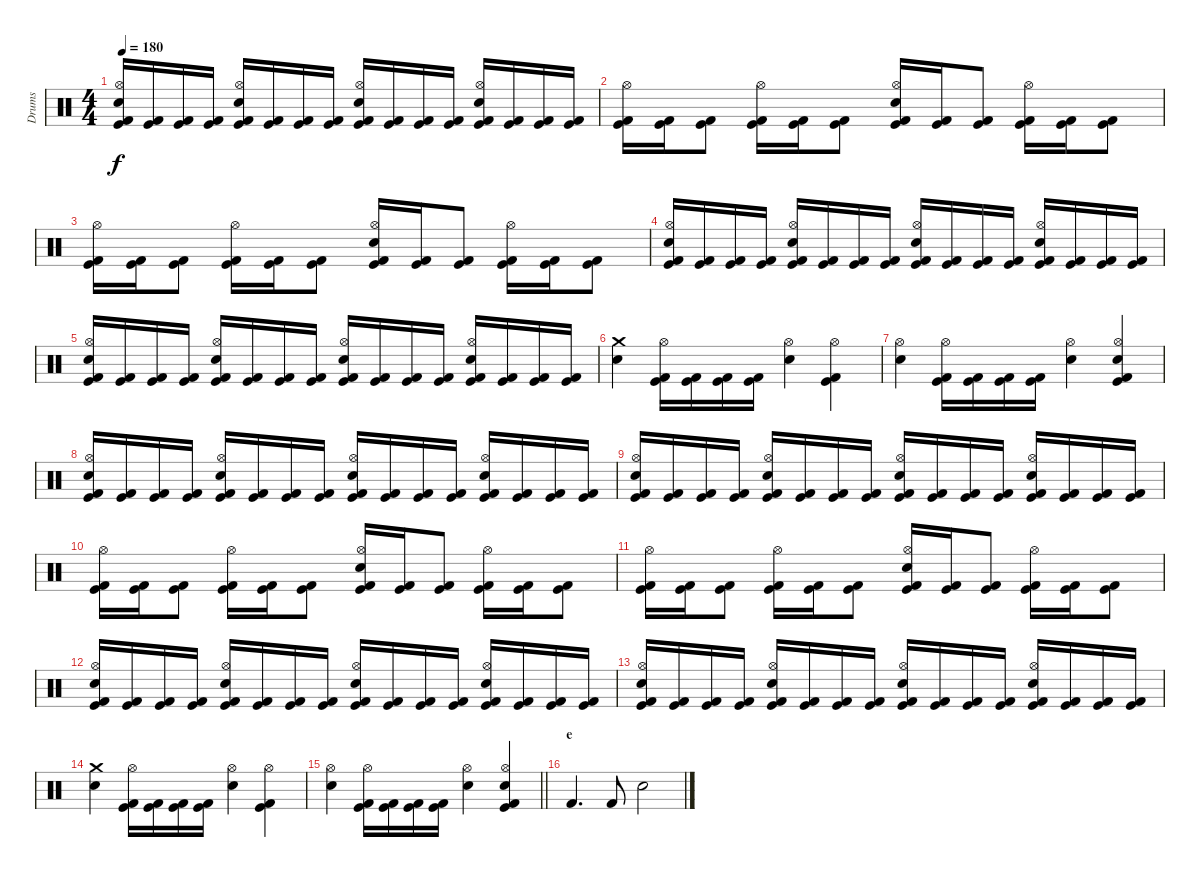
\track ("Drums" "Drums") {instrument percussion}
\staff {score}
\articulation defaults
\ts (4 4)
\tempo 180
\clef neutral
\ks c
("Kick (hit)" "Kick (hit) 2" "Hi-Hat (open)" "Electric Snare (hit)").16{dy f} ("Kick (hit)" "Kick (hit) 2").16 ("Kick (hit)" "Kick (hit) 2").16 ("Kick (hit)" "Kick (hit) 2").16 ("Kick (hit)" "Kick (hit) 2" "Hi-Hat (open)" "Electric Snare (hit)").16 ("Kick (hit)" "Kick (hit) 2").16 ("Kick (hit)" "Kick (hit) 2").16 ("Kick (hit)" "Kick (hit) 2").16 ("Kick (hit)" "Kick (hit) 2" "Hi-Hat (open)" "Electric Snare (hit)").16 ("Kick (hit)" "Kick (hit) 2").16 ("Kick (hit)" "Kick (hit) 2").16 ("Kick (hit)" "Kick (hit) 2").16 ("Kick (hit)" "Kick (hit) 2" "Hi-Hat (open)" "Electric Snare (hit)").16 ("Kick (hit)" "Kick (hit) 2").16 ("Kick (hit)" "Kick (hit) 2").16 ("Kick (hit)" "Kick (hit) 2").16 |
("Kick (hit) 2" "Kick (hit)" "Hi-Hat (open)").16 ("Kick (hit) 2" "Kick (hit)").16 ("Kick (hit) 2" "Kick (hit)").8 ("Kick (hit) 2" "Kick (hit)" "Hi-Hat (open)").16 ("Kick (hit) 2" "Kick (hit)").16 ("Kick (hit) 2" "Kick (hit)").8 ("Kick (hit) 2" "Kick (hit)" "Hi-Hat (open)" "Electric Snare (hit)").16 ("Kick (hit) 2" "Kick (hit)").16 ("Kick (hit) 2" "Kick (hit)").8 ("Kick (hit) 2" "Kick (hit)" "Hi-Hat (open)").16 ("Kick (hit) 2" "Kick (hit)").16 ("Kick (hit) 2" "Kick (hit)").8 |
("Kick (hit) 2" "Kick (hit)" "Hi-Hat (open)").16 ("Kick (hit) 2" "Kick (hit)").16 ("Kick (hit) 2" "Kick (hit)").8 ("Kick (hit) 2" "Kick (hit)" "Hi-Hat (open)").16 ("Kick (hit) 2" "Kick (hit)").16 ("Kick (hit) 2" "Kick (hit)").8 ("Kick (hit) 2" "Kick (hit)" "Hi-Hat (open)" "Electric Snare (hit)").16 ("Kick (hit) 2" "Kick (hit)").16 ("Kick (hit) 2" "Kick (hit)").8 ("Kick (hit) 2" "Kick (hit)" "Hi-Hat (open)").16 ("Kick (hit) 2" "Kick (hit)").16 ("Kick (hit) 2" "Kick (hit)").8 |
("Kick (hit)" "Kick (hit) 2" "Hi-Hat (open)" "Electric Snare (hit)").16 ("Kick (hit)" "Kick (hit) 2").16 ("Kick (hit)" "Kick (hit) 2").16 ("Kick (hit)" "Kick (hit) 2").16 ("Kick (hit)" "Kick (hit) 2" "Hi-Hat (open)" "Electric Snare (hit)").16 ("Kick (hit)" "Kick (hit) 2").16 ("Kick (hit)" "Kick (hit) 2").16 ("Kick (hit)" "Kick (hit) 2").16 ("Kick (hit)" "Kick (hit) 2" "Hi-Hat (open)" "Electric Snare (hit)").16 ("Kick (hit)" "Kick (hit) 2").16 ("Kick (hit)" "Kick (hit) 2").16 ("Kick (hit)" "Kick (hit) 2").16 ("Kick (hit)" "Kick (hit) 2" "Hi-Hat (open)" "Electric Snare (hit)").16 ("Kick (hit)" "Kick (hit) 2").16 ("Kick (hit)" "Kick (hit) 2").16 ("Kick (hit)" "Kick (hit) 2").16 |
("Kick (hit)" "Kick (hit) 2" "Hi-Hat (open)" "Electric Snare (hit)").16 ("Kick (hit)" "Kick (hit) 2").16 ("Kick (hit)" "Kick (hit) 2").16 ("Kick (hit)" "Kick (hit) 2").16 ("Kick (hit)" "Kick (hit) 2" "Hi-Hat (open)" "Electric Snare (hit)").16 ("Kick (hit)" "Kick (hit) 2").16 ("Kick (hit)" "Kick (hit) 2").16 ("Kick (hit)" "Kick (hit) 2").16 ("Kick (hit)" "Kick (hit) 2" "Hi-Hat (open)" "Electric Snare (hit)").16 ("Kick (hit)" "Kick (hit) 2").16 ("Kick (hit)" "Kick (hit) 2").16 ("Kick (hit)" "Kick (hit) 2").16 ("Kick (hit)" "Kick (hit) 2" "Hi-Hat (open)" "Electric Snare (hit)").16 ("Kick (hit)" "Kick (hit) 2").16 ("Kick (hit)" "Kick (hit) 2").16 ("Kick (hit)" "Kick (hit) 2").16 |
("Electric Snare (hit)" "Crash medium (hit)").4 ("Kick (hit) 2" "Hi-Hat (open)" "Kick (hit)").16 ("Kick (hit) 2" "Kick (hit)").16 ("Kick (hit) 2" "Kick (hit)").16 ("Kick (hit) 2" "Kick (hit)").16 ("Electric Snare (hit)" "Hi-Hat (open)").4 ("Kick (hit) 2" "Hi-Hat (open)" "Kick (hit)").4 |
("Electric Snare (hit)" "Hi-Hat (open)").4 ("Kick (hit) 2" "Hi-Hat (open)" "Kick (hit)").16 ("Kick (hit) 2" "Kick (hit)").16 ("Kick (hit) 2" "Kick (hit)").16 ("Kick (hit) 2" "Kick (hit)").16 ("Electric Snare (hit)" "Hi-Hat (open)").4 ("Kick (hit) 2" "Electric Snare (hit)" "Hi-Hat (open)" "Kick (hit)").4 |
("Kick (hit)" "Kick (hit) 2" "Hi-Hat (open)" "Electric Snare (hit)").16 ("Kick (hit)" "Kick (hit) 2").16 ("Kick (hit)" "Kick (hit) 2").16 ("Kick (hit)" "Kick (hit) 2").16 ("Kick (hit)" "Kick (hit) 2" "Hi-Hat (open)" "Electric Snare (hit)").16 ("Kick (hit)" "Kick (hit) 2").16 ("Kick (hit)" "Kick (hit) 2").16 ("Kick (hit)" "Kick (hit) 2").16 ("Kick (hit)" "Kick (hit) 2" "Hi-Hat (open)" "Electric Snare (hit)").16 ("Kick (hit)" "Kick (hit) 2").16 ("Kick (hit)" "Kick (hit) 2").16 ("Kick (hit)" "Kick (hit) 2").16 ("Kick (hit)" "Kick (hit) 2" "Hi-Hat (open)" "Electric Snare (hit)").16 ("Kick (hit)" "Kick (hit) 2").16 ("Kick (hit)" "Kick (hit) 2").16 ("Kick (hit)" "Kick (hit) 2").16 |
("Kick (hit)" "Kick (hit) 2" "Hi-Hat (open)" "Electric Snare (hit)").16 ("Kick (hit)" "Kick (hit) 2").16 ("Kick (hit)" "Kick (hit) 2").16 ("Kick (hit)" "Kick (hit) 2").16 ("Kick (hit)" "Kick (hit) 2" "Hi-Hat (open)" "Electric Snare (hit)").16 ("Kick (hit)" "Kick (hit) 2").16 ("Kick (hit)" "Kick (hit) 2").16 ("Kick (hit)" "Kick (hit) 2").16 ("Kick (hit)" "Kick (hit) 2" "Hi-Hat (open)" "Electric Snare (hit)").16 ("Kick (hit)" "Kick (hit) 2").16 ("Kick (hit)" "Kick (hit) 2").16 ("Kick (hit)" "Kick (hit) 2").16 ("Kick (hit)" "Kick (hit) 2" "Hi-Hat (open)" "Electric Snare (hit)").16 ("Kick (hit)" "Kick (hit) 2").16 ("Kick (hit)" "Kick (hit) 2").16 ("Kick (hit)" "Kick (hit) 2").16 |
("Kick (hit) 2" "Kick (hit)" "Hi-Hat (open)").16 ("Kick (hit) 2" "Kick (hit)").16 ("Kick (hit) 2" "Kick (hit)").8 ("Kick (hit) 2" "Kick (hit)" "Hi-Hat (open)").16 ("Kick (hit) 2" "Kick (hit)").16 ("Kick (hit) 2" "Kick (hit)").8 ("Kick (hit) 2" "Kick (hit)" "Hi-Hat (open)" "Electric Snare (hit)").16 ("Kick (hit) 2" "Kick (hit)").16 ("Kick (hit) 2" "Kick (hit)").8 ("Kick (hit) 2" "Kick (hit)" "Hi-Hat (open)").16 ("Kick (hit) 2" "Kick (hit)").16 ("Kick (hit) 2" "Kick (hit)").8 |
("Kick (hit) 2" "Kick (hit)" "Hi-Hat (open)").16 ("Kick (hit) 2" "Kick (hit)").16 ("Kick (hit) 2" "Kick (hit)").8 ("Kick (hit) 2" "Kick (hit)" "Hi-Hat (open)").16 ("Kick (hit) 2" "Kick (hit)").16 ("Kick (hit) 2" "Kick (hit)").8 ("Kick (hit) 2" "Kick (hit)" "Hi-Hat (open)" "Electric Snare (hit)").16 ("Kick (hit) 2" "Kick (hit)").16 ("Kick (hit) 2" "Kick (hit)").8 ("Kick (hit) 2" "Kick (hit)" "Hi-Hat (open)").16 ("Kick (hit) 2" "Kick (hit)").16 ("Kick (hit) 2" "Kick (hit)").8 |
("Kick (hit)" "Kick (hit) 2" "Hi-Hat (open)" "Electric Snare (hit)").16 ("Kick (hit)" "Kick (hit) 2").16 ("Kick (hit)" "Kick (hit) 2").16 ("Kick (hit)" "Kick (hit) 2").16 ("Kick (hit)" "Kick (hit) 2" "Hi-Hat (open)" "Electric Snare (hit)").16 ("Kick (hit)" "Kick (hit) 2").16 ("Kick (hit)" "Kick (hit) 2").16 ("Kick (hit)" "Kick (hit) 2").16 ("Kick (hit)" "Kick (hit) 2" "Hi-Hat (open)" "Electric Snare (hit)").16 ("Kick (hit)" "Kick (hit) 2").16 ("Kick (hit)" "Kick (hit) 2").16 ("Kick (hit)" "Kick (hit) 2").16 ("Kick (hit)" "Kick (hit) 2" "Hi-Hat (open)" "Electric Snare (hit)").16 ("Kick (hit)" "Kick (hit) 2").16 ("Kick (hit)" "Kick (hit) 2").16 ("Kick (hit)" "Kick (hit) 2").16 |
("Kick (hit)" "Kick (hit) 2" "Hi-Hat (open)" "Electric Snare (hit)").16 ("Kick (hit)" "Kick (hit) 2").16 ("Kick (hit)" "Kick (hit) 2").16 ("Kick (hit)" "Kick (hit) 2").16 ("Kick (hit)" "Kick (hit) 2" "Hi-Hat (open)" "Electric Snare (hit)").16 ("Kick (hit)" "Kick (hit) 2").16 ("Kick (hit)" "Kick (hit) 2").16 ("Kick (hit)" "Kick (hit) 2").16 ("Kick (hit)" "Kick (hit) 2" "Hi-Hat (open)" "Electric Snare (hit)").16 ("Kick (hit)" "Kick (hit) 2").16 ("Kick (hit)" "Kick (hit) 2").16 ("Kick (hit)" "Kick (hit) 2").16 ("Kick (hit)" "Kick (hit) 2" "Hi-Hat (open)" "Electric Snare (hit)").16 ("Kick (hit)" "Kick (hit) 2").16 ("Kick (hit)" "Kick (hit) 2").16 ("Kick (hit)" "Kick (hit) 2").16 |
("Electric Snare (hit)" "Crash medium (hit)").4 ("Kick (hit) 2" "Hi-Hat (open)" "Kick (hit)").16 ("Kick (hit) 2" "Kick (hit)").16 ("Kick (hit) 2" "Kick (hit)").16 ("Kick (hit) 2" "Kick (hit)").16 ("Electric Snare (hit)" "Hi-Hat (open)").4 ("Kick (hit) 2" "Hi-Hat (open)" "Kick (hit)").4 |
\barLineRight lightlight
("Electric Snare (hit)" "Hi-Hat (open)").4 ("Kick (hit) 2" "Hi-Hat (open)" "Kick (hit)").16 ("Kick (hit) 2" "Kick (hit)").16 ("Kick (hit) 2" "Kick (hit)").16 ("Kick (hit) 2" "Kick (hit)").16 ("Electric Snare (hit)" "Hi-Hat (open)").4 ("Kick (hit) 2" "Electric Snare (hit)" "Hi-Hat (open)" "Kick (hit)").4 |
\section ("" "e")
"Kick (hit) 2".4{d} "Kick (hit) 2".8 "Electric Snare (hit)".2
